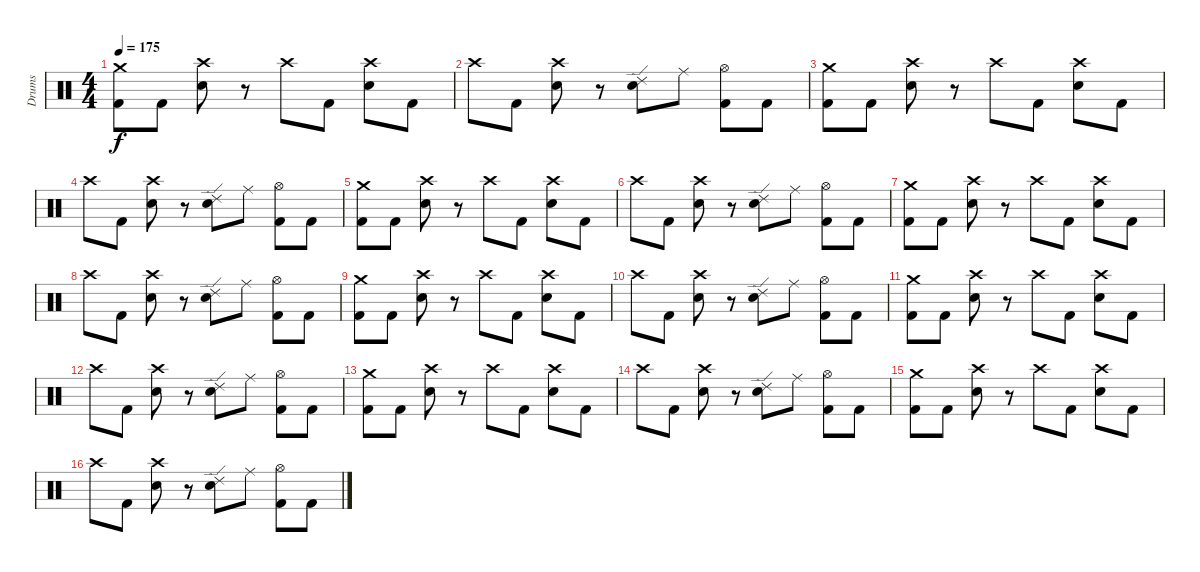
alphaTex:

\track ("Drums" "Drums") {instrument percussion}
\staff {score}
\articulation defaults
\ts (4 4)
\tempo 175
\clef neutral
\ks c
("Crash medium (hit)" "Kick (hit) 2").8{dy f} "Kick (hit) 2".8 ("Crash high (hit)" "Electric Snare (hit)").8 r.8 "Crash high (hit)".8 "Kick (hit) 2".8 ("Crash high (hit)" "Electric Snare (hit)").8 "Kick (hit) 2".8 |
"Crash high (hit)".8 "Kick (hit) 2".8 ("Crash high (hit)" "Electric Snare (hit)").8 r.8 ("Ride (edge) 2" "Electric Snare (hit)").8 "Ride (middle)".8 ("Hi-Hat (open)" "Kick (hit) 2").8 "Kick (hit) 2".8 |
("Crash medium (hit)" "Kick (hit) 2").8 "Kick (hit) 2".8 ("Crash high (hit)" "Electric Snare (hit)").8 r.8 "Crash high (hit)".8 "Kick (hit) 2".8 ("Crash high (hit)" "Electric Snare (hit)").8 "Kick (hit) 2".8 |
"Crash high (hit)".8 "Kick (hit) 2".8 ("Crash high (hit)" "Electric Snare (hit)").8 r.8 ("Ride (edge) 2" "Electric Snare (hit)").8 "Ride (middle)".8 ("Hi-Hat (open)" "Kick (hit) 2").8 "Kick (hit) 2".8 |
("Crash medium (hit)" "Kick (hit) 2").8 "Kick (hit) 2".8 ("Crash high (hit)" "Electric Snare (hit)").8 r.8 "Crash high (hit)".8 "Kick (hit) 2".8 ("Crash high (hit)" "Electric Snare (hit)").8 "Kick (hit) 2".8 |
"Crash high (hit)".8 "Kick (hit) 2".8 ("Crash high (hit)" "Electric Snare (hit)").8 r.8 ("Ride (edge) 2" "Electric Snare (hit)").8 "Ride (middle)".8 ("Hi-Hat (open)" "Kick (hit) 2").8 "Kick (hit) 2".8 |
("Crash medium (hit)" "Kick (hit) 2").8 "Kick (hit) 2".8 ("Crash high (hit)" "Electric Snare (hit)").8 r.8 "Crash high (hit)".8 "Kick (hit) 2".8 ("Crash high (hit)" "Electric Snare (hit)").8 "Kick (hit) 2".8 |
"Crash high (hit)".8 "Kick (hit) 2".8 ("Crash high (hit)" "Electric Snare (hit)").8 r.8 ("Ride (edge) 2" "Electric Snare (hit)").8 "Ride (middle)".8 ("Hi-Hat (open)" "Kick (hit) 2").8 "Kick (hit) 2".8 |
("Crash medium (hit)" "Kick (hit) 2").8 "Kick (hit) 2".8 ("Crash high (hit)" "Electric Snare (hit)").8 r.8 "Crash high (hit)".8 "Kick (hit) 2".8 ("Crash high (hit)" "Electric Snare (hit)").8 "Kick (hit) 2".8 |
"Crash high (hit)".8 "Kick (hit) 2".8 ("Crash high (hit)" "Electric Snare (hit)").8 r.8 ("Ride (edge) 2" "Electric Snare (hit)").8 "Ride (middle)".8 ("Hi-Hat (open)" "Kick (hit) 2").8 "Kick (hit) 2".8 |
("Crash medium (hit)" "Kick (hit) 2").8 "Kick (hit) 2".8 ("Crash high (hit)" "Electric Snare (hit)").8 r.8 "Crash high (hit)".8 "Kick (hit) 2".8 ("Crash high (hit)" "Electric Snare (hit)").8 "Kick (hit) 2".8 |
"Crash high (hit)".8 "Kick (hit) 2".8 ("Crash high (hit)" "Electric Snare (hit)").8 r.8 ("Ride (edge) 2" "Electric Snare (hit)").8 "Ride (middle)".8 ("Hi-Hat (open)" "Kick (hit) 2").8 "Kick (hit) 2".8 |
("Crash medium (hit)" "Kick (hit) 2").8 "Kick (hit) 2".8 ("Crash high (hit)" "Electric Snare (hit)").8 r.8 "Crash high (hit)".8 "Kick (hit) 2".8 ("Crash high (hit)" "Electric Snare (hit)").8 "Kick (hit) 2".8 |
"Crash high (hit)".8 "Kick (hit) 2".8 ("Crash high (hit)" "Electric Snare (hit)").8 r.8 ("Ride (edge) 2" "Electric Snare (hit)").8 "Ride (middle)".8 ("Hi-Hat (open)" "Kick (hit) 2").8 "Kick (hit) 2".8 |
("Crash medium (hit)" "Kick (hit) 2").8 "Kick (hit) 2".8 ("Crash high (hit)" "Electric Snare (hit)").8 r.8 "Crash high (hit)".8 "Kick (hit) 2".8 ("Crash high (hit)" "Electric Snare (hit)").8 "Kick (hit) 2".8 |
"Crash high (hit)".8 "Kick (hit) 2".8 ("Crash high (hit)" "Electric Snare (hit)").8 r.8 ("Ride (edge) 2" "Electric Snare (hit)").8 "Ride (middle)".8 ("Hi-Hat (open)" "Kick (hit) 2").8 "Kick (hit) 2".8
